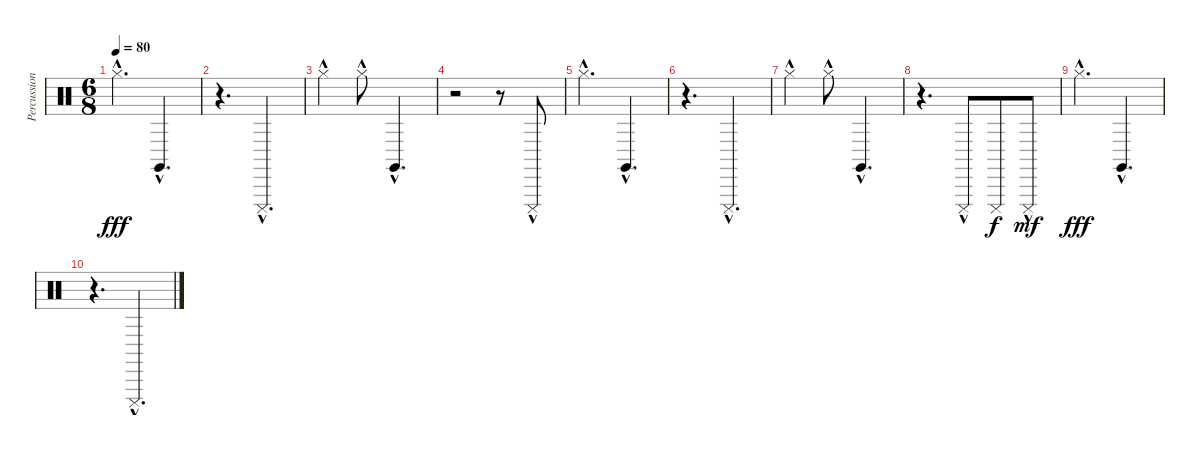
\track ("Percussion" "Percussion") {instrument percussion}
\staff {score}
\articulation defaults
\ts (6 8)
\tempo 80
\clef neutral
\ks c "Hi-Hat (closed)"{hac}.4{d dy fff} "Claves (hit)"{hac}.4{d}
|
r.4{d} "Cuica (mute)"{hac}.4{d} |
"Hi-Hat (closed)"{hac}.4 "Hi-Hat (closed)"{hac}.8 "Claves (hit)"{hac}.4{d} |
r.2 r.8 "Cuica (mute)"{hac}.8 |
"Hi-Hat (closed)"{hac}.4{d} "Claves (hit)"{hac}.4{d} |
r.4{d} "Cuica (mute)"{hac}.4{d} |
"Hi-Hat (closed)"{hac}.4 "Hi-Hat (closed)"{hac}.8 "Claves (hit)"{hac}.4{d} |
r.4{d} "Cuica (mute)"{hac}.8 "Cuica (mute)".8{dy f} "Cuica (mute)"{hac}.8{dy mf} |
"Hi-Hat (closed)"{hac}.4{d dy fff} "Claves (hit)"{hac}.4{d} |
r.4{d} "Cuica (mute)"{hac}.4{d}
